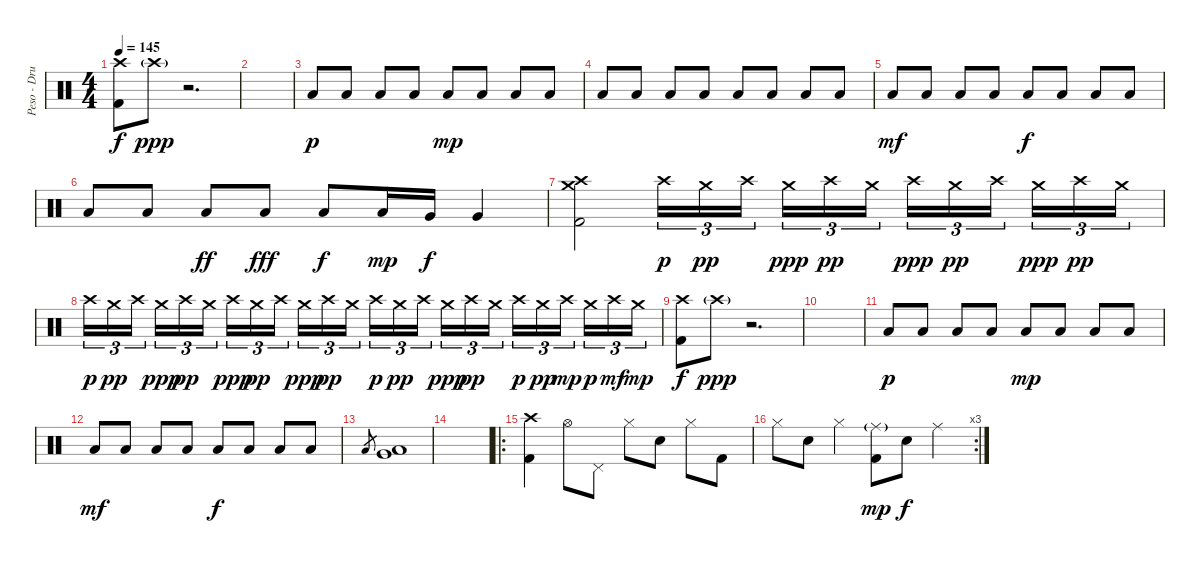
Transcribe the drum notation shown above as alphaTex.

\track ("Peso - Drums" "Peso - Dru") {instrument percussion}
\staff {score}
\articulation defaults
\ts (4 4)
\tempo 145
\clef neutral
\ks c
("Crash high (hit)" "Kick (hit) 2").8{dy f} "Crash high (hit)"{g}.8{dy ppp} r.2{d} |
|
"Low Floor Tom (hit)".8{dy p} "Low Floor Tom (hit)".8 "Low Floor Tom (hit)".8 "Low Floor Tom (hit)".8 "Low Floor Tom (hit)".8{dy mp} "Low Floor Tom (hit)".8 "Low Floor Tom (hit)".8 "Low Floor Tom (hit)".8 |
"Low Floor Tom (hit)".8 "Low Floor Tom (hit)".8 "Low Floor Tom (hit)".8 "Low Floor Tom (hit)".8 "Low Floor Tom (hit)".8 "Low Floor Tom (hit)".8 "Low Floor Tom (hit)".8 "Low Floor Tom (hit)".8 |
"Low Floor Tom (hit)".8{dy mf} "Low Floor Tom (hit)".8 "Low Floor Tom (hit)".8 "Low Floor Tom (hit)".8 "Low Floor Tom (hit)".8{dy f} "Low Floor Tom (hit)".8 "Low Floor Tom (hit)".8 "Low Floor Tom (hit)".8 |
"Low Floor Tom (hit)".8 "Low Floor Tom (hit)".8 "Low Floor Tom (hit)".8{dy ff} "Low Floor Tom (hit)".8{dy fff} "Low Floor Tom (hit)".8{dy f} "Low Floor Tom (hit)".16{dy mp} "Very Low Tom (hit)".16{dy f} "Very Low Tom (hit)".4 |
("Crash medium (hit)" "Crash high (hit)" "Kick (hit) 2").2 "Crash high (hit)".16{tu (3 2) dy p} "Crash medium (hit)".16{tu (3 2) dy pp} "Crash high (hit)".16{tu (3 2) beam splitsecondary} "Crash medium (hit)".16{tu (3 2) dy ppp} "Crash high (hit)".16{tu (3 2) dy pp} "Crash medium (hit)".16{tu (3 2)} "Crash high (hit)".16{tu (3 2) dy ppp} "Crash medium (hit)".16{tu (3 2) dy pp} "Crash high (hit)".16{tu (3 2) beam splitsecondary} "Crash medium (hit)".16{tu (3 2) dy ppp} "Crash high (hit)".16{tu (3 2) dy pp} "Crash medium (hit)".16{tu (3 2)} |
"Crash high (hit)".16{tu (3 2) dy p} "Crash medium (hit)".16{tu (3 2) dy pp} "Crash high (hit)".16{tu (3 2) beam splitsecondary} "Crash medium (hit)".16{tu (3 2) dy ppp} "Crash high (hit)".16{tu (3 2) dy pp} "Crash medium (hit)".16{tu (3 2)} "Crash high (hit)".16{tu (3 2) dy ppp} "Crash medium (hit)".16{tu (3 2) dy pp} "Crash high (hit)".16{tu (3 2) beam splitsecondary} "Crash medium (hit)".16{tu (3 2) dy ppp} "Crash high (hit)".16{tu (3 2) dy pp} "Crash medium (hit)".16{tu (3 2)} "Crash high (hit)".16{tu (3 2) dy p} "Crash medium (hit)".16{tu (3 2) dy pp} "Crash high (hit)".16{tu (3 2) beam splitsecondary} "Crash medium (hit)".16{tu (3 2) dy ppp} "Crash high (hit)".16{tu (3 2) dy pp} "Crash medium (hit)".16{tu (3 2)} "Crash high (hit)".16{tu (3 2) dy p} "Crash medium (hit)".16{tu (3 2) dy pp} "Crash high (hit)".16{tu (3 2) dy mp beam splitsecondary} "Crash medium (hit)".16{tu (3 2) dy p} "Crash high (hit)".16{tu (3 2) dy mf} "Crash medium (hit)".16{tu (3 2) dy mp} |
("Crash high (hit)" "Kick (hit) 2").8{dy f} "Crash high (hit)"{g}.8{dy ppp} r.2{d} |
|
"Low Floor Tom (hit)".8{dy p} "Low Floor Tom (hit)".8 "Low Floor Tom (hit)".8 "Low Floor Tom (hit)".8 "Low Floor Tom (hit)".8{dy mp} "Low Floor Tom (hit)".8 "Low Floor Tom (hit)".8 "Low Floor Tom (hit)".8 |
"Low Floor Tom (hit)".8{dy mf} "Low Floor Tom (hit)".8 "Low Floor Tom (hit)".8 "Low Floor Tom (hit)".8 "Low Floor Tom (hit)".8{dy f} "Low Floor Tom (hit)".8 "Low Floor Tom (hit)".8 "Low Floor Tom (hit)".8 |
"Low Floor Tom (hit)".8{gr} ("Very Low Tom (hit)" "Low Floor Tom (hit)").1 |
|
\ro
("Crash high (hit)" "Kick (hit) 2").4 "Hi-Hat (open)".8 "Pedal Hi-Hat (hit)".8 "Hi-Hat (closed)".8 "Electric Snare (hit)".8 "Hi-Hat (closed)".8 "Kick (hit) 2".8 |
\rc 3 "Hi-Hat (closed)".8 "Electric Snare (hit)".8 "Hi-Hat (closed)".4
("Ride (middle)"{g} "Kick (hit) 2").8{dy mp} "Electric Snare (hit)".8{dy f} "Ride (middle)".4
